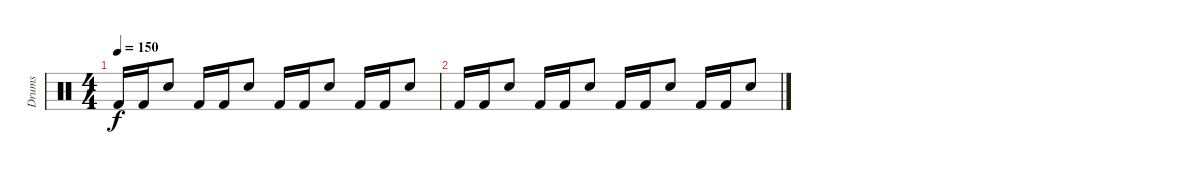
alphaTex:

\track ("Drums" "Drums") {instrument percussion}
\staff {score}
\articulation defaults
\ts (4 4)
\tempo 150
\clef neutral
\ks c "Kick (hit) 2".16{dy f} "Kick (hit) 2".16 "Snare (hit) 2".8 "Kick (hit) 2".16 "Kick (hit) 2".16 "Snare (hit) 2".8 "Kick (hit) 2".16 "Kick (hit) 2".16 "Snare (hit) 2".8 "Kick (hit) 2".16 "Kick (hit) 2".16 "Snare (hit) 2".8
|
"Kick (hit) 2".16 "Kick (hit) 2".16 "Snare (hit) 2".8 "Kick (hit) 2".16 "Kick (hit) 2".16 "Snare (hit) 2".8 "Kick (hit) 2".16 "Kick (hit) 2".16 "Snare (hit) 2".8 "Kick (hit) 2".16 "Kick (hit) 2".16 "Snare (hit) 2".8
